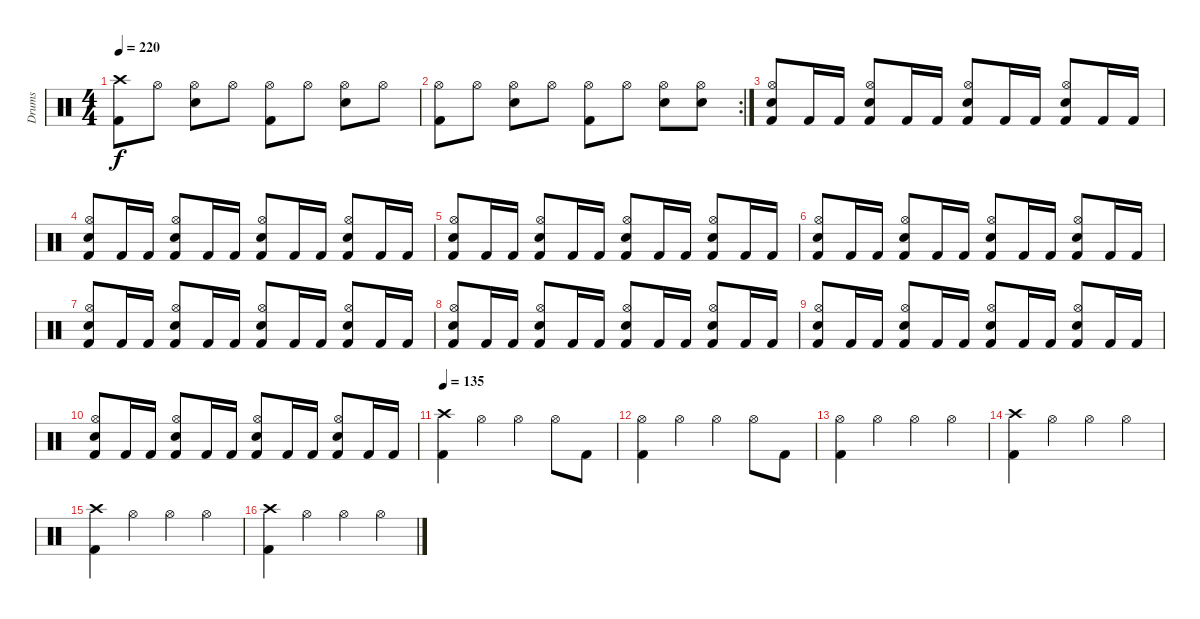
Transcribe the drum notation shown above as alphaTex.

\track ("Drums" "Drums") {instrument percussion}
\staff {score}
\articulation defaults
\ts (4 4)
\tempo 220
\clef neutral
\ks c
("Crash high (hit)" "Kick (hit) 2").8{dy f} "Hi-Hat (open)".8 ("Hi-Hat (open)" "Snare (hit) 2").8 "Hi-Hat (open)".8 ("Hi-Hat (open)" "Kick (hit) 2").8 "Hi-Hat (open)".8 ("Hi-Hat (open)" "Snare (hit) 2").8 "Hi-Hat (open)".8 |
\rc 2
("Hi-Hat (open)" "Kick (hit) 2").8 "Hi-Hat (open)".8 ("Hi-Hat (open)" "Snare (hit) 2").8 "Hi-Hat (open)".8 ("Hi-Hat (open)" "Kick (hit) 2").8 "Hi-Hat (open)".8 ("Hi-Hat (open)" "Snare (hit) 2").8 ("Hi-Hat (open)" "Snare (hit) 2").8 |
("Hi-Hat (open)" "Snare (hit) 2" "Kick (hit) 2").8 "Kick (hit) 2".16 "Kick (hit) 2".16 ("Hi-Hat (open)" "Snare (hit) 2" "Kick (hit) 2").8 "Kick (hit) 2".16 "Kick (hit) 2".16 ("Hi-Hat (open)" "Snare (hit) 2" "Kick (hit) 2").8 "Kick (hit) 2".16 "Kick (hit) 2".16 ("Hi-Hat (open)" "Snare (hit) 2" "Kick (hit) 2").8 "Kick (hit) 2".16 "Kick (hit) 2".16 |
("Hi-Hat (open)" "Snare (hit) 2" "Kick (hit) 2").8 "Kick (hit) 2".16 "Kick (hit) 2".16 ("Hi-Hat (open)" "Snare (hit) 2" "Kick (hit) 2").8 "Kick (hit) 2".16 "Kick (hit) 2".16 ("Hi-Hat (open)" "Snare (hit) 2" "Kick (hit) 2").8 "Kick (hit) 2".16 "Kick (hit) 2".16 ("Hi-Hat (open)" "Snare (hit) 2" "Kick (hit) 2").8 "Kick (hit) 2".16 "Kick (hit) 2".16 |
("Hi-Hat (open)" "Snare (hit) 2" "Kick (hit) 2").8 "Kick (hit) 2".16 "Kick (hit) 2".16 ("Hi-Hat (open)" "Snare (hit) 2" "Kick (hit) 2").8 "Kick (hit) 2".16 "Kick (hit) 2".16 ("Hi-Hat (open)" "Snare (hit) 2" "Kick (hit) 2").8 "Kick (hit) 2".16 "Kick (hit) 2".16 ("Hi-Hat (open)" "Snare (hit) 2" "Kick (hit) 2").8 "Kick (hit) 2".16 "Kick (hit) 2".16 |
("Hi-Hat (open)" "Snare (hit) 2" "Kick (hit) 2").8 "Kick (hit) 2".16 "Kick (hit) 2".16 ("Hi-Hat (open)" "Snare (hit) 2" "Kick (hit) 2").8 "Kick (hit) 2".16 "Kick (hit) 2".16 ("Hi-Hat (open)" "Snare (hit) 2" "Kick (hit) 2").8 "Kick (hit) 2".16 "Kick (hit) 2".16 ("Hi-Hat (open)" "Snare (hit) 2" "Kick (hit) 2").8 "Kick (hit) 2".16 "Kick (hit) 2".16 |
("Hi-Hat (open)" "Snare (hit) 2" "Kick (hit) 2").8 "Kick (hit) 2".16 "Kick (hit) 2".16 ("Hi-Hat (open)" "Snare (hit) 2" "Kick (hit) 2").8 "Kick (hit) 2".16 "Kick (hit) 2".16 ("Hi-Hat (open)" "Snare (hit) 2" "Kick (hit) 2").8 "Kick (hit) 2".16 "Kick (hit) 2".16 ("Hi-Hat (open)" "Snare (hit) 2" "Kick (hit) 2").8 "Kick (hit) 2".16 "Kick (hit) 2".16 |
("Hi-Hat (open)" "Snare (hit) 2" "Kick (hit) 2").8 "Kick (hit) 2".16 "Kick (hit) 2".16 ("Hi-Hat (open)" "Snare (hit) 2" "Kick (hit) 2").8 "Kick (hit) 2".16 "Kick (hit) 2".16 ("Hi-Hat (open)" "Snare (hit) 2" "Kick (hit) 2").8 "Kick (hit) 2".16 "Kick (hit) 2".16 ("Hi-Hat (open)" "Snare (hit) 2" "Kick (hit) 2").8 "Kick (hit) 2".16 "Kick (hit) 2".16 |
("Hi-Hat (open)" "Snare (hit) 2" "Kick (hit) 2").8 "Kick (hit) 2".16 "Kick (hit) 2".16 ("Hi-Hat (open)" "Snare (hit) 2" "Kick (hit) 2").8 "Kick (hit) 2".16 "Kick (hit) 2".16 ("Hi-Hat (open)" "Snare (hit) 2" "Kick (hit) 2").8 "Kick (hit) 2".16 "Kick (hit) 2".16 ("Hi-Hat (open)" "Snare (hit) 2" "Kick (hit) 2").8 "Kick (hit) 2".16 "Kick (hit) 2".16 |
("Hi-Hat (open)" "Snare (hit) 2" "Kick (hit) 2").8 "Kick (hit) 2".16 "Kick (hit) 2".16 ("Hi-Hat (open)" "Snare (hit) 2" "Kick (hit) 2").8 "Kick (hit) 2".16 "Kick (hit) 2".16 ("Hi-Hat (open)" "Snare (hit) 2" "Kick (hit) 2").8 "Kick (hit) 2".16 "Kick (hit) 2".16 ("Hi-Hat (open)" "Snare (hit) 2" "Kick (hit) 2").8 "Kick (hit) 2".16 "Kick (hit) 2".16 |
\tempo 135
("Crash high (hit)" "Kick (hit) 2").4 "Hi-Hat (open)".4 "Hi-Hat (open)".4 "Hi-Hat (open)".8 "Kick (hit) 2".8 |
("Hi-Hat (open)" "Kick (hit) 2").4 "Hi-Hat (open)".4 "Hi-Hat (open)".4 "Hi-Hat (open)".8 "Kick (hit) 2".8 |
("Hi-Hat (open)" "Kick (hit) 2").4 "Hi-Hat (open)".4 "Hi-Hat (open)".4 "Hi-Hat (open)".4 |
("Crash high (hit)" "Kick (hit) 2").4 "Hi-Hat (open)".4 "Hi-Hat (open)".4 "Hi-Hat (open)".4 |
("Crash high (hit)" "Kick (hit) 2").4 "Hi-Hat (open)".4 "Hi-Hat (open)".4 "Hi-Hat (open)".4 |
("Crash high (hit)" "Kick (hit) 2").4 "Hi-Hat (open)".4 "Hi-Hat (open)".4 "Hi-Hat (open)".4
